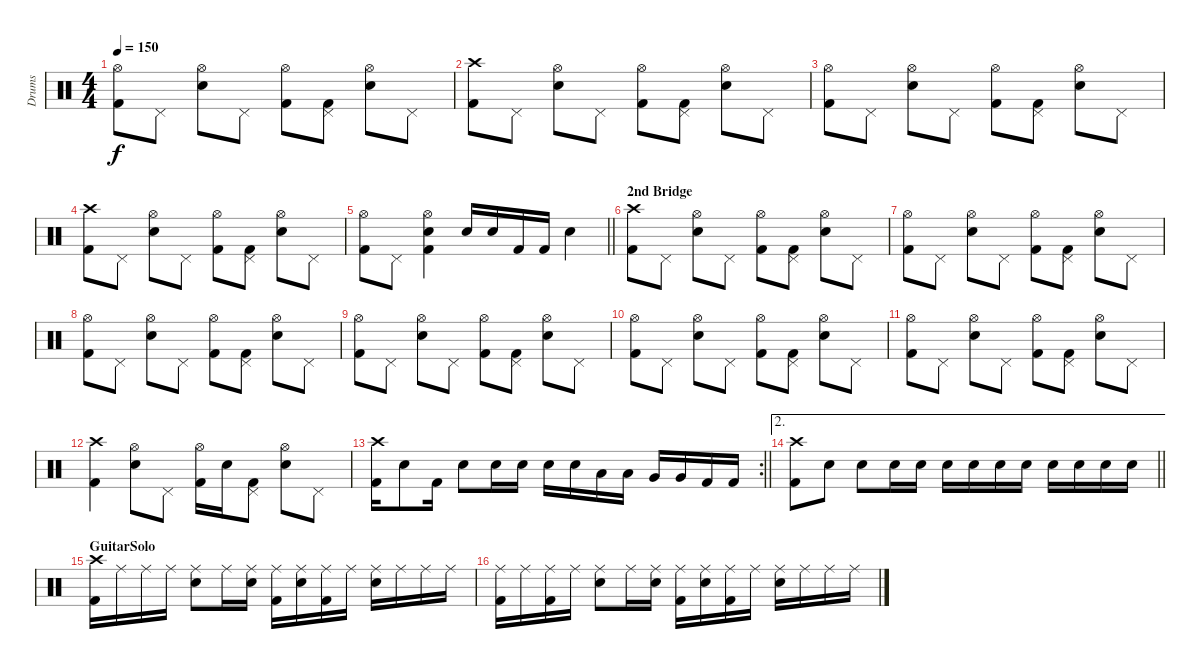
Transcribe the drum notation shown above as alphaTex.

\track ("Drums" "Drums") {instrument percussion}
\staff {score}
\articulation defaults
\ts (4 4)
\tempo 150
\clef neutral
\ks c
("Hi-Hat (open)" "Kick (hit) 2").8{dy f} "Pedal Hi-Hat (hit)".8 ("Hi-Hat (open)" "Snare (hit) 2").8 "Pedal Hi-Hat (hit)".8 ("Hi-Hat (open)" "Kick (hit) 2").8 ("Pedal Hi-Hat (hit)" "Kick (hit) 2").8 ("Hi-Hat (open)" "Snare (hit) 2").8 "Pedal Hi-Hat (hit)".8 |
("Crash high (hit)" "Kick (hit) 2").8 "Pedal Hi-Hat (hit)".8 ("Hi-Hat (open)" "Snare (hit) 2").8 "Pedal Hi-Hat (hit)".8 ("Hi-Hat (open)" "Kick (hit) 2").8 ("Pedal Hi-Hat (hit)" "Kick (hit) 2").8 ("Hi-Hat (open)" "Snare (hit) 2").8 "Pedal Hi-Hat (hit)".8 |
("Hi-Hat (open)" "Kick (hit) 2").8 "Pedal Hi-Hat (hit)".8 ("Hi-Hat (open)" "Snare (hit) 2").8 "Pedal Hi-Hat (hit)".8 ("Hi-Hat (open)" "Kick (hit) 2").8 ("Pedal Hi-Hat (hit)" "Kick (hit) 2").8 ("Hi-Hat (open)" "Snare (hit) 2").8 "Pedal Hi-Hat (hit)".8 |
("Crash high (hit)" "Kick (hit) 2").8 "Pedal Hi-Hat (hit)".8 ("Hi-Hat (open)" "Snare (hit) 2").8 "Pedal Hi-Hat (hit)".8 ("Hi-Hat (open)" "Kick (hit) 2").8 ("Pedal Hi-Hat (hit)" "Kick (hit) 2").8 ("Hi-Hat (open)" "Snare (hit) 2").8 "Pedal Hi-Hat (hit)".8 |
\barLineRight lightlight
("Hi-Hat (open)" "Kick (hit) 2").8 "Pedal Hi-Hat (hit)".8 ("Hi-Hat (open)" "Snare (hit) 2" "Kick (hit) 2").4 "Snare (hit) 2".16 "Snare (hit) 2".16 "Kick (hit) 2".16 "Kick (hit) 2".16 "Snare (hit) 2".4 |
\section ("" "2nd Bridge")
("Crash high (hit)" "Kick (hit) 2").8 "Pedal Hi-Hat (hit)".8 ("Hi-Hat (open)" "Snare (hit) 2").8 "Pedal Hi-Hat (hit)".8 ("Hi-Hat (open)" "Kick (hit) 2").8 ("Pedal Hi-Hat (hit)" "Kick (hit) 2").8 ("Hi-Hat (open)" "Snare (hit) 2").8 "Pedal Hi-Hat (hit)".8 |
("Hi-Hat (open)" "Kick (hit) 2").8 "Pedal Hi-Hat (hit)".8 ("Hi-Hat (open)" "Snare (hit) 2").8 "Pedal Hi-Hat (hit)".8 ("Hi-Hat (open)" "Kick (hit) 2").8 ("Pedal Hi-Hat (hit)" "Kick (hit) 2").8 ("Hi-Hat (open)" "Snare (hit) 2").8 "Pedal Hi-Hat (hit)".8 |
("Hi-Hat (open)" "Kick (hit) 2").8 "Pedal Hi-Hat (hit)".8 ("Hi-Hat (open)" "Snare (hit) 2").8 "Pedal Hi-Hat (hit)".8 ("Hi-Hat (open)" "Kick (hit) 2").8 ("Pedal Hi-Hat (hit)" "Kick (hit) 2").8 ("Hi-Hat (open)" "Snare (hit) 2").8 "Pedal Hi-Hat (hit)".8 |
("Hi-Hat (open)" "Kick (hit) 2").8 "Pedal Hi-Hat (hit)".8 ("Hi-Hat (open)" "Snare (hit) 2").8 "Pedal Hi-Hat (hit)".8 ("Hi-Hat (open)" "Kick (hit) 2").8 ("Pedal Hi-Hat (hit)" "Kick (hit) 2").8 ("Hi-Hat (open)" "Snare (hit) 2").8 "Pedal Hi-Hat (hit)".8 |
("Hi-Hat (open)" "Kick (hit) 2").8 "Pedal Hi-Hat (hit)".8 ("Hi-Hat (open)" "Snare (hit) 2").8 "Pedal Hi-Hat (hit)".8 ("Hi-Hat (open)" "Kick (hit) 2").8 ("Pedal Hi-Hat (hit)" "Kick (hit) 2").8 ("Hi-Hat (open)" "Snare (hit) 2").8 "Pedal Hi-Hat (hit)".8 |
("Hi-Hat (open)" "Kick (hit) 2").8 "Pedal Hi-Hat (hit)".8 ("Hi-Hat (open)" "Snare (hit) 2").8 "Pedal Hi-Hat (hit)".8 ("Hi-Hat (open)" "Kick (hit) 2").8 ("Pedal Hi-Hat (hit)" "Kick (hit) 2").8 ("Hi-Hat (open)" "Snare (hit) 2").8 "Pedal Hi-Hat (hit)".8 |
("Crash high (hit)" "Kick (hit) 2").4 ("Hi-Hat (open)" "Snare (hit) 2").8 "Pedal Hi-Hat (hit)".8 ("Hi-Hat (open)" "Kick (hit) 2").16 "Snare (hit) 2".16 ("Pedal Hi-Hat (hit)" "Kick (hit) 2").8 ("Hi-Hat (open)" "Snare (hit) 2").8 "Pedal Hi-Hat (hit)".8 |
\rc 2
\barLineRight lightlight
("Crash high (hit)" "Kick (hit) 2").16 "Snare (hit) 2".8 "Kick (hit) 2".16 "Snare (hit) 2".8 "Snare (hit) 2".16 "Snare (hit) 2".16 "Snare (hit) 2".16 "Snare (hit) 2".16 "Low Tom (hit)".16 "Low Tom (hit)".16 "Very Low Tom (hit)".16 "Very Low Tom (hit)".16 "Kick (hit) 2".16 "Kick (hit) 2".16 |
\ae 2
\barLineRight lightlight
("Crash high (hit)" "Kick (hit) 2").8 "Snare (hit) 2".8 "Snare (hit) 2".8 "Snare (hit) 2".16 "Snare (hit) 2".16 "Snare (hit) 2".16 "Snare (hit) 2".16 "Snare (hit) 2".16 "Snare (hit) 2".16 "Snare (hit) 2".16 "Snare (hit) 2".16 "Snare (hit) 2".16 "Snare (hit) 2".16 |
\section ("" "GuitarSolo")
("Crash high (hit)" "Kick (hit) 2").16 "Ride (middle)".16 "Ride (middle)".16 "Ride (middle)".16 ("Ride (middle)" "Snare (hit) 2").8 "Ride (middle)".16 ("Ride (middle)" "Snare (hit) 2").16 ("Ride (middle)" "Kick (hit) 2").16 ("Ride (middle)" "Snare (hit) 2").16 ("Ride (middle)" "Kick (hit) 2").16 "Ride (middle)".16 ("Ride (middle)" "Snare (hit) 2").16 "Ride (middle)".16 "Ride (middle)".16 "Ride (middle)".16 |
("Ride (middle)" "Kick (hit) 2").16 "Ride (middle)".16 ("Ride (middle)" "Kick (hit) 2").16 "Ride (middle)".16 ("Ride (middle)" "Snare (hit) 2").8 "Ride (middle)".16 ("Ride (middle)" "Snare (hit) 2").16 ("Ride (middle)" "Kick (hit) 2").16 ("Ride (middle)" "Snare (hit) 2").16 ("Ride (middle)" "Kick (hit) 2").16 "Ride (middle)".16 ("Ride (middle)" "Snare (hit) 2").16 "Ride (middle)".16 "Ride (middle)".16 "Ride (middle)".16
